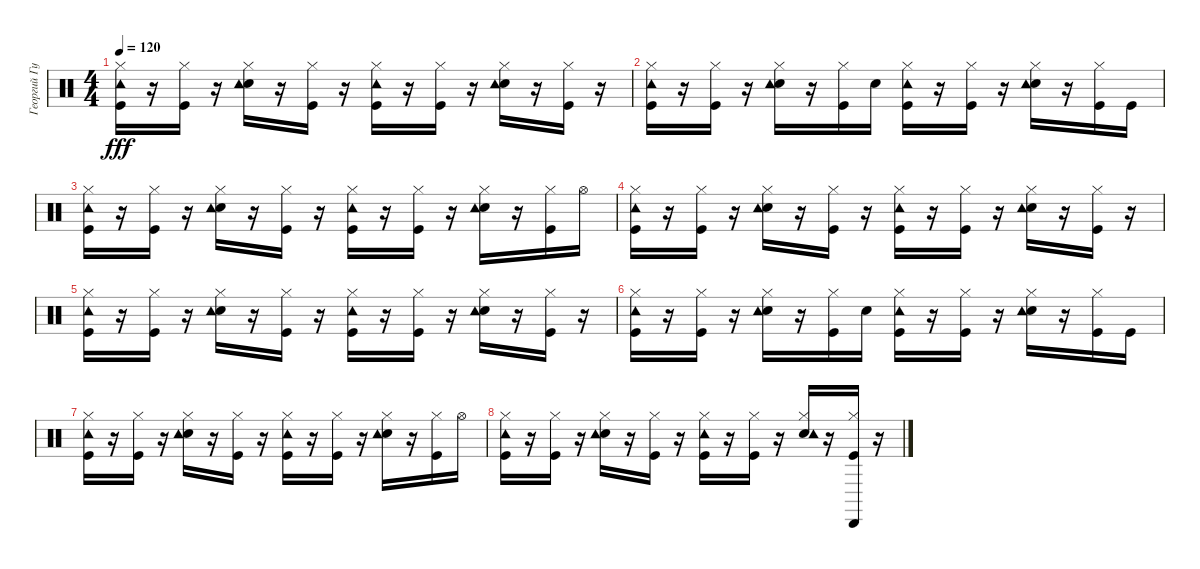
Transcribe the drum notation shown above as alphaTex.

\track ("Георгий Гурьянов (ударные)" "Георгий Гу") {instrument percussion}
\staff {score}
\articulation defaults
\ts (4 4)
\tempo 120
\clef neutral
\ks c
("Kick (hit)" "Hi-Hat (closed)" "Tambourine (hit)").16{dy fff} r.16 ("Kick (hit)" "Hi-Hat (closed)").16 r.16 ("Snare (hit) 2" "Hi-Hat (closed)" "Tambourine (hit)").16 r.16 ("Kick (hit)" "Hi-Hat (closed)").16 r.16 ("Kick (hit)" "Hi-Hat (closed)" "Tambourine (hit)").16 r.16 ("Kick (hit)" "Hi-Hat (closed)").16 r.16 ("Snare (hit) 2" "Hi-Hat (closed)" "Tambourine (hit)").16 r.16 ("Kick (hit)" "Hi-Hat (closed)").16 r.16 |
("Kick (hit)" "Hi-Hat (closed)" "Tambourine (hit)").16 r.16 ("Kick (hit)" "Hi-Hat (closed)").16 r.16 ("Snare (hit) 2" "Hi-Hat (closed)" "Tambourine (hit)").16 r.16 ("Kick (hit)" "Hi-Hat (closed)").16 "Snare (hit) 2".16 ("Kick (hit)" "Hi-Hat (closed)" "Tambourine (hit)").16 r.16 ("Kick (hit)" "Hi-Hat (closed)").16 r.16 ("Snare (hit) 2" "Hi-Hat (closed)" "Tambourine (hit)").16 r.16 ("Kick (hit)" "Hi-Hat (closed)").16 "Kick (hit)".16 |
("Kick (hit)" "Hi-Hat (closed)" "Tambourine (hit)").16{volume 12} r.16 ("Kick (hit)" "Hi-Hat (closed)").16 r.16 ("Snare (hit) 2" "Hi-Hat (closed)" "Tambourine (hit)").16 r.16 ("Kick (hit)" "Hi-Hat (closed)").16 r.16 ("Kick (hit)" "Hi-Hat (closed)" "Tambourine (hit)").16 r.16 ("Kick (hit)" "Hi-Hat (closed)").16 r.16 ("Snare (hit) 2" "Hi-Hat (closed)" "Tambourine (hit)").16 r.16 ("Kick (hit)" "Hi-Hat (closed)").16 "Hi-Hat (open)".16 |
("Kick (hit)" "Hi-Hat (closed)" "Tambourine (hit)").16{volume 10} r.16 ("Kick (hit)" "Hi-Hat (closed)").16 r.16 ("Snare (hit) 2" "Hi-Hat (closed)" "Tambourine (hit)").16 r.16 ("Kick (hit)" "Hi-Hat (closed)").16 r.16 ("Kick (hit)" "Hi-Hat (closed)" "Tambourine (hit)").16 r.16 ("Kick (hit)" "Hi-Hat (closed)").16 r.16 ("Snare (hit) 2" "Hi-Hat (closed)" "Tambourine (hit)").16 r.16 ("Kick (hit)" "Hi-Hat (closed)").16 r.16 |
("Kick (hit)" "Hi-Hat (closed)" "Tambourine (hit)").16{volume 8} r.16 ("Kick (hit)" "Hi-Hat (closed)").16 r.16 ("Snare (hit) 2" "Hi-Hat (closed)" "Tambourine (hit)").16 r.16 ("Kick (hit)" "Hi-Hat (closed)").16 r.16 ("Kick (hit)" "Hi-Hat (closed)" "Tambourine (hit)").16 r.16 ("Kick (hit)" "Hi-Hat (closed)").16 r.16 ("Snare (hit) 2" "Hi-Hat (closed)" "Tambourine (hit)").16 r.16 ("Kick (hit)" "Hi-Hat (closed)").16 r.16 |
("Kick (hit)" "Hi-Hat (closed)" "Tambourine (hit)").16{volume 6} r.16 ("Kick (hit)" "Hi-Hat (closed)").16 r.16 ("Snare (hit) 2" "Hi-Hat (closed)" "Tambourine (hit)").16 r.16 ("Kick (hit)" "Hi-Hat (closed)").16 "Snare (hit) 2".16 ("Kick (hit)" "Hi-Hat (closed)" "Tambourine (hit)").16 r.16 ("Kick (hit)" "Hi-Hat (closed)").16 r.16 ("Snare (hit) 2" "Hi-Hat (closed)" "Tambourine (hit)").16 r.16 ("Kick (hit)" "Hi-Hat (closed)").16 "Kick (hit)".16 |
("Kick (hit)" "Hi-Hat (closed)" "Tambourine (hit)").16{volume 4} r.16 ("Kick (hit)" "Hi-Hat (closed)").16 r.16 ("Snare (hit) 2" "Hi-Hat (closed)" "Tambourine (hit)").16 r.16 ("Kick (hit)" "Hi-Hat (closed)").16 r.16 ("Kick (hit)" "Hi-Hat (closed)" "Tambourine (hit)").16 r.16 ("Kick (hit)" "Hi-Hat (closed)").16 r.16 ("Snare (hit) 2" "Hi-Hat (closed)" "Tambourine (hit)").16 r.16 ("Kick (hit)" "Hi-Hat (closed)").16 "Hi-Hat (open)".16 |
("Kick (hit)" "Hi-Hat (closed)" "Tambourine (hit)").16{volume 2} r.16 ("Kick (hit)" "Hi-Hat (closed)").16 r.16 ("Snare (hit) 2" "Hi-Hat (closed)" "Tambourine (hit)").16 r.16 ("Kick (hit)" "Hi-Hat (closed)").16 r.16 ("Kick (hit)" "Hi-Hat (closed)" "Tambourine (hit)").16 r.16 ("Kick (hit)" "Hi-Hat (closed)").16 r.16 ("Snare (hit) 2" "Hi-Hat (closed)" "Tambourine (hit)").16 r.16 ("Kick (hit)" "Hi-Hat (closed)" "Cabasa (hit)").16 r.16
